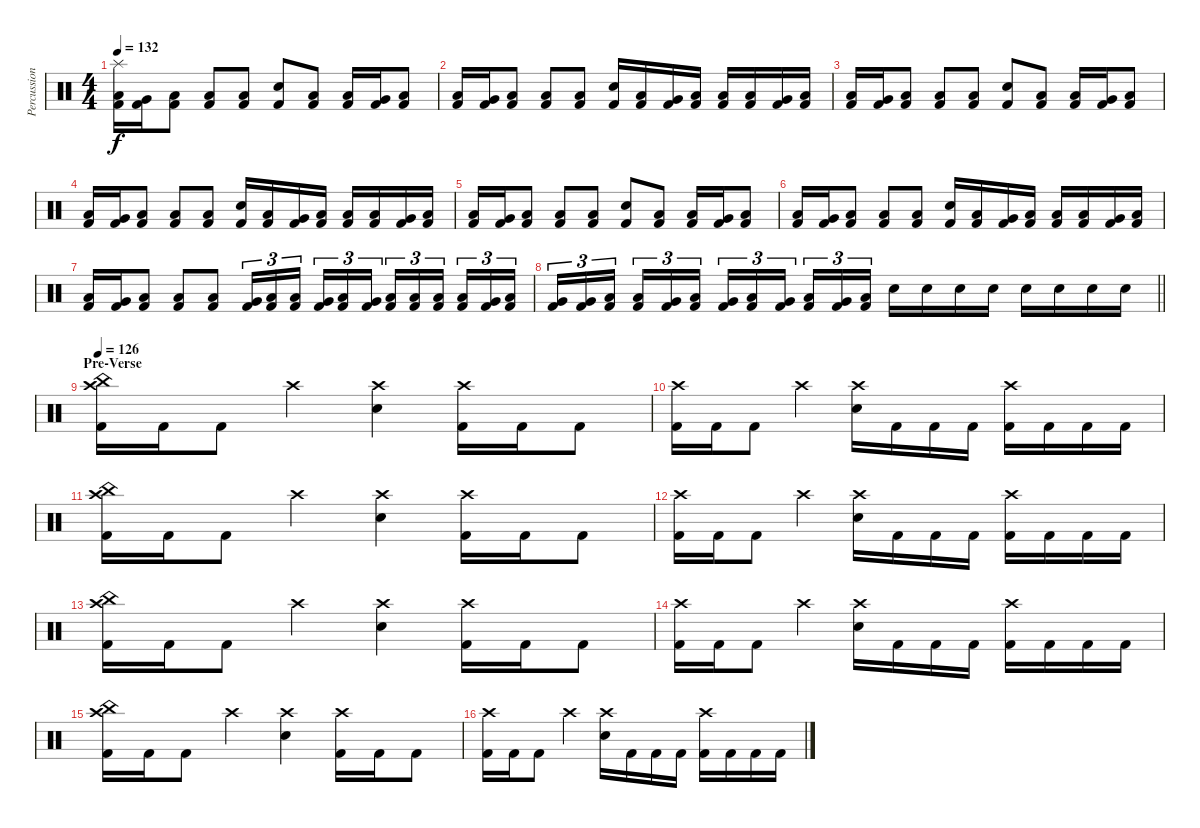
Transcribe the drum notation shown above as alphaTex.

\track ("Percussion" "Percussion") {instrument percussion}
\staff {score}
\articulation defaults
\ts (4 4)
\tempo 132
\clef neutral
\ks c
("Splash (hit)" "Low Floor Tom (hit)" "Kick (hit) 2").16{dy f} ("Very Low Tom (hit)" "Kick (hit) 2").16 ("Low Floor Tom (hit)" "Kick (hit) 2").8 ("Low Floor Tom (hit)" "Kick (hit) 2").8 ("Low Floor Tom (hit)" "Kick (hit) 2").8 ("Electric Snare (hit)" "Kick (hit) 2").8 ("Low Floor Tom (hit)" "Kick (hit) 2").8 ("Low Floor Tom (hit)" "Kick (hit) 2").16 ("Very Low Tom (hit)" "Kick (hit) 2").16 ("Low Floor Tom (hit)" "Kick (hit) 2").8 |
("Low Floor Tom (hit)" "Kick (hit) 2").16 ("Very Low Tom (hit)" "Kick (hit) 2").16 ("Low Floor Tom (hit)" "Kick (hit) 2").8 ("Low Floor Tom (hit)" "Kick (hit) 2").8 ("Low Floor Tom (hit)" "Kick (hit) 2").8 ("Electric Snare (hit)" "Kick (hit) 2").16 ("Low Floor Tom (hit)" "Kick (hit) 2").16 ("Very Low Tom (hit)" "Kick (hit) 2").16 ("Low Floor Tom (hit)" "Kick (hit) 2").16 ("Low Tom (hit)" "Kick (hit) 2").16 ("Low Floor Tom (hit)" "Kick (hit) 2").16 ("Very Low Tom (hit)" "Kick (hit) 2").16 ("Low Floor Tom (hit)" "Kick (hit) 2").16 |
("Low Floor Tom (hit)" "Kick (hit) 2").16 ("Very Low Tom (hit)" "Kick (hit) 2").16 ("Low Floor Tom (hit)" "Kick (hit) 2").8 ("Low Floor Tom (hit)" "Kick (hit) 2").8 ("Low Floor Tom (hit)" "Kick (hit) 2").8 ("Electric Snare (hit)" "Kick (hit) 2").8 ("Low Floor Tom (hit)" "Kick (hit) 2").8 ("Low Floor Tom (hit)" "Kick (hit) 2").16 ("Very Low Tom (hit)" "Kick (hit) 2").16 ("Low Floor Tom (hit)" "Kick (hit) 2").8 |
("Low Floor Tom (hit)" "Kick (hit) 2").16 ("Very Low Tom (hit)" "Kick (hit) 2").16 ("Low Floor Tom (hit)" "Kick (hit) 2").8 ("Low Floor Tom (hit)" "Kick (hit) 2").8 ("Low Floor Tom (hit)" "Kick (hit) 2").8 ("Electric Snare (hit)" "Kick (hit) 2").16 ("Low Floor Tom (hit)" "Kick (hit) 2").16 ("Very Low Tom (hit)" "Kick (hit) 2").16 ("Low Floor Tom (hit)" "Kick (hit) 2").16 ("Low Tom (hit)" "Kick (hit) 2").16 ("Low Floor Tom (hit)" "Kick (hit) 2").16 ("Very Low Tom (hit)" "Kick (hit) 2").16 ("Low Floor Tom (hit)" "Kick (hit) 2").16 |
("Low Floor Tom (hit)" "Kick (hit) 2").16 ("Very Low Tom (hit)" "Kick (hit) 2").16 ("Low Floor Tom (hit)" "Kick (hit) 2").8 ("Low Floor Tom (hit)" "Kick (hit) 2").8 ("Low Floor Tom (hit)" "Kick (hit) 2").8 ("Electric Snare (hit)" "Kick (hit) 2").8 ("Low Floor Tom (hit)" "Kick (hit) 2").8 ("Low Floor Tom (hit)" "Kick (hit) 2").16 ("Very Low Tom (hit)" "Kick (hit) 2").16 ("Low Floor Tom (hit)" "Kick (hit) 2").8 |
("Low Floor Tom (hit)" "Kick (hit) 2").16 ("Very Low Tom (hit)" "Kick (hit) 2").16 ("Low Floor Tom (hit)" "Kick (hit) 2").8 ("Low Floor Tom (hit)" "Kick (hit) 2").8 ("Low Floor Tom (hit)" "Kick (hit) 2").8 ("Electric Snare (hit)" "Kick (hit) 2").16 ("Low Floor Tom (hit)" "Kick (hit) 2").16 ("Very Low Tom (hit)" "Kick (hit) 2").16 ("Low Floor Tom (hit)" "Kick (hit) 2").16 ("Low Tom (hit)" "Kick (hit) 2").16 ("Low Floor Tom (hit)" "Kick (hit) 2").16 ("Very Low Tom (hit)" "Kick (hit) 2").16 ("Low Floor Tom (hit)" "Kick (hit) 2").16 |
("Low Floor Tom (hit)" "Kick (hit) 2").16 ("Very Low Tom (hit)" "Kick (hit) 2").16 ("Low Floor Tom (hit)" "Kick (hit) 2").8 ("Low Floor Tom (hit)" "Kick (hit) 2").8 ("Low Floor Tom (hit)" "Kick (hit) 2").8 ("Very Low Tom (hit)" "Kick (hit) 2").16{tu (3 2)} ("Low Floor Tom (hit)" "Kick (hit) 2").16{tu (3 2)} ("Low Floor Tom (hit)" "Kick (hit) 2").16{tu (3 2) beam splitsecondary} ("Very Low Tom (hit)" "Kick (hit) 2").16{tu (3 2)} ("Low Tom (hit)" "Kick (hit) 2").16{tu (3 2)} ("Very Low Tom (hit)" "Kick (hit) 2").16{tu (3 2)} ("Low Floor Tom (hit)" "Kick (hit) 2").16{tu (3 2)} ("Low Floor Tom (hit)" "Kick (hit) 2").16{tu (3 2)} ("Low Tom (hit)" "Kick (hit) 2").16{tu (3 2) beam splitsecondary} ("Low Tom (hit)" "Kick (hit) 2").16{tu (3 2)} ("Very Low Tom (hit)" "Kick (hit) 2").16{tu (3 2)} ("Low Floor Tom (hit)" "Kick (hit) 2").16{tu (3 2)} |
\barLineRight lightlight
("Very Low Tom (hit)" "Kick (hit) 2").16{tu (3 2)} ("Very Low Tom (hit)" "Kick (hit) 2").16{tu (3 2)} ("Low Floor Tom (hit)" "Kick (hit) 2").16{tu (3 2) beam splitsecondary} ("Low Tom (hit)" "Kick (hit) 2").16{tu (3 2)} ("Very Low Tom (hit)" "Kick (hit) 2").16{tu (3 2)} ("Low Tom (hit)" "Kick (hit) 2").16{tu (3 2)} ("Very Low Tom (hit)" "Kick (hit) 2").16{tu (3 2)} ("Low Floor Tom (hit)" "Kick (hit) 2").16{tu (3 2)} ("Very Low Tom (hit)" "Kick (hit) 2").16{tu (3 2) beam splitsecondary} ("Low Tom (hit)" "Kick (hit) 2").16{tu (3 2)} ("Very Low Tom (hit)" "Kick (hit) 2").16{tu (3 2)} ("Low Floor Tom (hit)" "Kick (hit) 2").16{tu (3 2)} "Electric Snare (hit)".16 "Electric Snare (hit)".16 "Electric Snare (hit)".16 "Electric Snare (hit)".16 "Electric Snare (hit)".16 "Electric Snare (hit)".16 "Electric Snare (hit)".16 "Electric Snare (hit)".16 |
\section ("" "Pre-Verse")
\tempo 126
("Crash high (hit)" "China (hit)" "Kick (hit) 2").16 "Kick (hit) 2".16 "Kick (hit) 2".8 "Crash high (hit)".4 ("Crash high (hit)" "Electric Snare (hit)").4 ("Crash high (hit)" "Kick (hit) 2").16 "Kick (hit) 2".16 "Kick (hit) 2".8 |
("Crash high (hit)" "Kick (hit) 2").16 "Kick (hit) 2".16 "Kick (hit) 2".8 "Crash high (hit)".4 ("Crash high (hit)" "Electric Snare (hit)").16 "Kick (hit) 2".16 "Kick (hit) 2".16 "Kick (hit) 2".16 ("Crash high (hit)" "Kick (hit) 2").16 "Kick (hit) 2".16 "Kick (hit) 2".16 "Kick (hit) 2".16 |
("Crash high (hit)" "China (hit)" "Kick (hit) 2").16 "Kick (hit) 2".16 "Kick (hit) 2".8 "Crash high (hit)".4 ("Crash high (hit)" "Electric Snare (hit)").4 ("Crash high (hit)" "Kick (hit) 2").16 "Kick (hit) 2".16 "Kick (hit) 2".8 |
("Crash high (hit)" "Kick (hit) 2").16 "Kick (hit) 2".16 "Kick (hit) 2".8 "Crash high (hit)".4 ("Crash high (hit)" "Electric Snare (hit)").16 "Kick (hit) 2".16 "Kick (hit) 2".16 "Kick (hit) 2".16 ("Crash high (hit)" "Kick (hit) 2").16 "Kick (hit) 2".16 "Kick (hit) 2".16 "Kick (hit) 2".16 |
("Crash high (hit)" "China (hit)" "Kick (hit) 2").16 "Kick (hit) 2".16 "Kick (hit) 2".8 "Crash high (hit)".4 ("Crash high (hit)" "Electric Snare (hit)").4 ("Crash high (hit)" "Kick (hit) 2").16 "Kick (hit) 2".16 "Kick (hit) 2".8 |
("Crash high (hit)" "Kick (hit) 2").16 "Kick (hit) 2".16 "Kick (hit) 2".8 "Crash high (hit)".4 ("Crash high (hit)" "Electric Snare (hit)").16 "Kick (hit) 2".16 "Kick (hit) 2".16 "Kick (hit) 2".16 ("Crash high (hit)" "Kick (hit) 2").16 "Kick (hit) 2".16 "Kick (hit) 2".16 "Kick (hit) 2".16 |
("Crash high (hit)" "China (hit)" "Kick (hit) 2").16 "Kick (hit) 2".16 "Kick (hit) 2".8 "Crash high (hit)".4 ("Crash high (hit)" "Electric Snare (hit)").4 ("Crash high (hit)" "Kick (hit) 2").16 "Kick (hit) 2".16 "Kick (hit) 2".8 |
("Crash high (hit)" "Kick (hit) 2").16 "Kick (hit) 2".16 "Kick (hit) 2".8 "Crash high (hit)".4 ("Crash high (hit)" "Electric Snare (hit)").16 "Kick (hit) 2".16 "Kick (hit) 2".16 "Kick (hit) 2".16 ("Crash high (hit)" "Kick (hit) 2").16 "Kick (hit) 2".16 "Kick (hit) 2".16 "Kick (hit) 2".16
